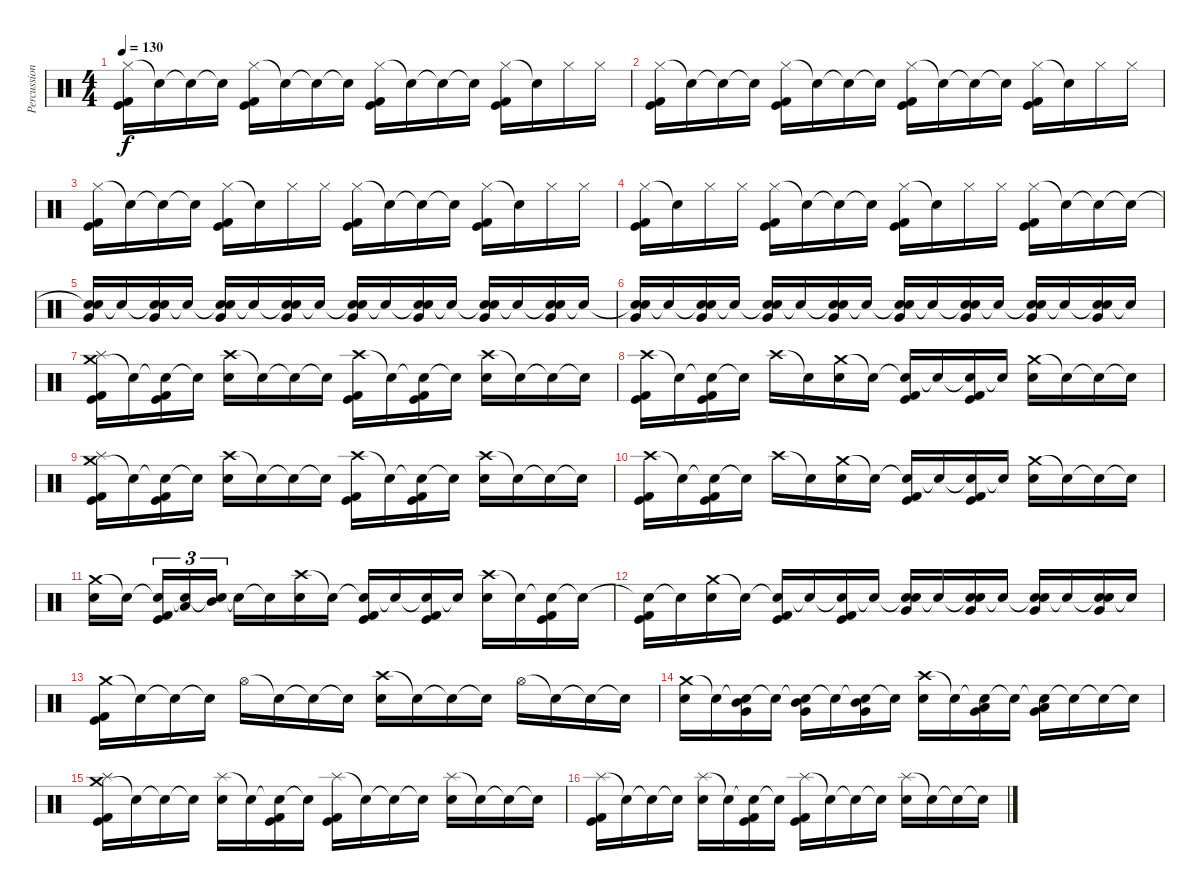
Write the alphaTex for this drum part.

\track ("Percussion" "Percussion") {instrument percussion}
\staff {score}
\articulation defaults
\ts (4 4)
\tempo 130
\clef neutral
\ks c
("Hi-Hat (closed)" "Kick (hit)" "Kick (hit) 2").16{dy f} "Snare (hit)"{t}.16 "Snare (hit)"{t}.16 "Snare (hit)"{t}.16 ("Hi-Hat (closed)" "Kick (hit)" "Kick (hit) 2").16 "Snare (hit)"{t}.16 "Snare (hit)"{t}.16 "Snare (hit)"{t}.16 ("Hi-Hat (closed)" "Kick (hit)" "Kick (hit) 2").16 "Snare (hit)"{t}.16 "Snare (hit)"{t}.16 "Snare (hit)"{t}.16 ("Hi-Hat (closed)" "Kick (hit)" "Kick (hit) 2").16 "Snare (hit)"{t}.16 "Hi-Hat (closed)".16 "Hi-Hat (closed)".16 |
("Hi-Hat (closed)" "Kick (hit)" "Kick (hit) 2").16 "Snare (hit)"{t}.16 "Snare (hit)"{t}.16 "Snare (hit)"{t}.16 ("Hi-Hat (closed)" "Kick (hit)" "Kick (hit) 2").16 "Snare (hit)"{t}.16 "Snare (hit)"{t}.16 "Snare (hit)"{t}.16 ("Hi-Hat (closed)" "Kick (hit)" "Kick (hit) 2").16 "Snare (hit)"{t}.16 "Snare (hit)"{t}.16 "Snare (hit)"{t}.16 ("Hi-Hat (closed)" "Kick (hit)" "Kick (hit) 2").16 "Snare (hit)"{t}.16 "Hi-Hat (closed)".16 "Hi-Hat (closed)".16 |
("Hi-Hat (closed)" "Kick (hit)" "Kick (hit) 2").16 "Snare (hit)"{t}.16 "Snare (hit)"{t}.16 "Snare (hit)"{t}.16 ("Hi-Hat (closed)" "Kick (hit)" "Kick (hit) 2").16 "Snare (hit)"{t}.16 "Hi-Hat (closed)".16 "Hi-Hat (closed)".16 ("Hi-Hat (closed)" "Kick (hit)" "Kick (hit) 2").16 "Snare (hit)"{t}.16 "Snare (hit)"{t}.16 "Snare (hit)"{t}.16 ("Hi-Hat (closed)" "Kick (hit)" "Kick (hit) 2").16 "Snare (hit)"{t}.16 "Hi-Hat (closed)".16 "Hi-Hat (closed)".16 |
("Hi-Hat (closed)" "Kick (hit)" "Kick (hit) 2").16 "Snare (hit)"{t}.16 "Hi-Hat (closed)".16 "Hi-Hat (closed)".16 ("Hi-Hat (closed)" "Kick (hit)" "Kick (hit) 2").16 "Snare (hit)"{t}.16 "Snare (hit)"{t}.16 "Snare (hit)"{t}.16 ("Hi-Hat (closed)" "Kick (hit)" "Kick (hit) 2").16 "Snare (hit)"{t}.16 "Hi-Hat (closed)".16 "Hi-Hat (closed)".16 ("Hi-Hat (closed)" "Kick (hit)" "Kick (hit) 2").16 "Snare (hit)"{t}.16 "Snare (hit)"{t}.16 "Snare (hit)"{t}.16 |
("Snare (hit)"{t} "Electric Snare (hit)" "Very Low Tom (hit)").16 "Snare (hit)"{t}.16 ("Snare (hit)"{t} "Electric Snare (hit)" "Very Low Tom (hit)").16{volume 8} "Snare (hit)"{t}.16 ("Snare (hit)"{t} "Electric Snare (hit)" "Very Low Tom (hit)").16{volume 16} "Snare (hit)"{t}.16 ("Snare (hit)"{t} "Electric Snare (hit)" "Very Low Tom (hit)").16 "Snare (hit)"{t}.16 ("Snare (hit)"{t} "Electric Snare (hit)" "Very Low Tom (hit)").16 "Snare (hit)"{t}.16 ("Snare (hit)"{t} "Electric Snare (hit)" "Very Low Tom (hit)").16 "Snare (hit)"{t}.16 ("Snare (hit)"{t} "Electric Snare (hit)" "Very Low Tom (hit)").16 "Snare (hit)"{t}.16 ("Snare (hit)"{t} "Electric Snare (hit)" "Very Low Tom (hit)").16 "Snare (hit)"{t}.16 |
("Snare (hit)"{t} "Electric Snare (hit)" "Very Low Tom (hit)").16 "Snare (hit)"{t}.16 ("Snare (hit)"{t} "Electric Snare (hit)" "Very Low Tom (hit)").16 "Snare (hit)"{t}.16 ("Snare (hit)"{t} "Electric Snare (hit)" "Very Low Tom (hit)").16 "Snare (hit)"{t}.16 ("Snare (hit)"{t} "Electric Snare (hit)" "Very Low Tom (hit)").16 "Snare (hit)"{t}.16 ("Snare (hit)"{t} "Electric Snare (hit)" "Very Low Tom (hit)").16 "Snare (hit)"{t}.16 ("Snare (hit)"{t} "Electric Snare (hit)" "Very Low Tom (hit)").16 "Snare (hit)"{t}.16 ("Snare (hit)"{t} "Electric Snare (hit)" "Very Low Tom (hit)").16 "Snare (hit)"{t}.16 ("Snare (hit)"{t} "Electric Snare (hit)" "Very Low Tom (hit)").16 "Snare (hit)"{t}.16 |
("Crash medium (hit)" "Splash (hit)" "Kick (hit)" "Kick (hit) 2").16 "Snare (hit)"{t}.16 ("Snare (hit)"{t} "Kick (hit)" "Kick (hit) 2").16 "Snare (hit)"{t}.16 ("Crash high (hit)" "Electric Snare (hit)").16 "Snare (hit)"{t}.16 "Snare (hit)"{t}.16 "Snare (hit)"{t}.16 ("Crash high (hit)" "Kick (hit)" "Kick (hit) 2").16 "Snare (hit)"{t}.16 ("Snare (hit)"{t} "Kick (hit)" "Kick (hit) 2").16 "Snare (hit)"{t}.16 ("Crash high (hit)" "Electric Snare (hit)").16 "Snare (hit)"{t}.16 "Snare (hit)"{t}.16 "Snare (hit)"{t}.16 |
("Crash high (hit)" "Kick (hit)" "Kick (hit) 2").16 "Snare (hit)"{t}.16 ("Snare (hit)"{t} "Kick (hit)" "Kick (hit) 2").16 "Snare (hit)"{t}.16 "Crash high (hit)".16 "Snare (hit)"{t}.16 ("Crash medium (hit)" "Electric Snare (hit)").16 "Snare (hit)"{t}.16 ("Snare (hit)"{t} "Kick (hit)" "Kick (hit) 2").16 "Snare (hit)"{t}.16 ("Snare (hit)"{t} "Kick (hit)" "Kick (hit) 2").16 "Snare (hit)"{t}.16 ("Crash medium (hit)" "Electric Snare (hit)").16 "Snare (hit)"{t}.16 "Snare (hit)"{t}.16 "Snare (hit)"{t}.16 |
("Crash medium (hit)" "Splash (hit)" "Kick (hit)" "Kick (hit) 2").16 "Snare (hit)"{t}.16 ("Snare (hit)"{t} "Kick (hit)" "Kick (hit) 2").16 "Snare (hit)"{t}.16 ("Crash high (hit)" "Electric Snare (hit)").16 "Snare (hit)"{t}.16 "Snare (hit)"{t}.16 "Snare (hit)"{t}.16 ("Crash high (hit)" "Kick (hit)" "Kick (hit) 2").16 "Snare (hit)"{t}.16 ("Snare (hit)"{t} "Kick (hit)" "Kick (hit) 2").16 "Snare (hit)"{t}.16 ("Crash high (hit)" "Electric Snare (hit)").16 "Snare (hit)"{t}.16 "Snare (hit)"{t}.16 "Snare (hit)"{t}.16 |
("Crash high (hit)" "Kick (hit)" "Kick (hit) 2").16 "Snare (hit)"{t}.16 ("Snare (hit)"{t} "Kick (hit)" "Kick (hit) 2").16 "Snare (hit)"{t}.16 "Crash high (hit)".16 "Snare (hit)"{t}.16 ("Crash medium (hit)" "Electric Snare (hit)").16 "Snare (hit)"{t}.16 ("Snare (hit)"{t} "Kick (hit)" "Kick (hit) 2").16 "Snare (hit)"{t}.16 ("Snare (hit)"{t} "Kick (hit)" "Kick (hit) 2").16 "Snare (hit)"{t}.16 ("Crash medium (hit)" "Electric Snare (hit)").16 "Snare (hit)"{t}.16 "Snare (hit)"{t}.16 "Snare (hit)"{t}.16 |
("Crash medium (hit)" "Electric Snare (hit)").16 "Snare (hit)"{t}.16{beam splitsecondary} ("Snare (hit)"{t} "Kick (hit)" "Kick (hit) 2").16{tu (3 2)} ("Snare (hit)"{t} "Low Tom (hit)").16{tu (3 2)} ("Snare (hit)"{t} "Mid Tom (hit)").16{tu (3 2)} "Snare (hit)"{t}.16 "Snare (hit)"{t}.16 ("Crash high (hit)" "Electric Snare (hit)").16 "Snare (hit)"{t}.16 ("Snare (hit)"{t} "Kick (hit)" "Kick (hit) 2").16 "Snare (hit)"{t}.16 ("Snare (hit)"{t} "Kick (hit)" "Kick (hit) 2").16 "Snare (hit)"{t}.16 ("Crash high (hit)" "Electric Snare (hit)").16 "Snare (hit)"{t}.16 ("Snare (hit)"{t} "Kick (hit)" "Kick (hit) 2").16 "Snare (hit)"{t}.16 |
("Snare (hit)"{t} "Kick (hit)" "Kick (hit) 2").16 "Snare (hit)"{t}.16 ("Crash medium (hit)" "Electric Snare (hit)").16 "Snare (hit)"{t}.16 ("Snare (hit)"{t} "Kick (hit)" "Kick (hit) 2").16 "Snare (hit)"{t}.16 ("Snare (hit)"{t} "Kick (hit)" "Kick (hit) 2").16 "Snare (hit)"{t}.16 ("Snare (hit)"{t} "Electric Snare (hit)" "Very Low Tom (hit)").16 "Snare (hit)"{t}.16 ("Snare (hit)"{t} "Electric Snare (hit)" "Very Low Tom (hit)").16 "Snare (hit)"{t}.16 ("Snare (hit)"{t} "Electric Snare (hit)" "Very Low Tom (hit)").16 "Snare (hit)"{t}.16 ("Snare (hit)"{t} "Electric Snare (hit)" "Very Low Tom (hit)").16 "Snare (hit)"{t}.16 |
("Crash medium (hit)" "Kick (hit)" "Kick (hit) 2").16 "Snare (hit)"{t}.16 "Snare (hit)"{t}.16 "Snare (hit)"{t}.16 "Hi-Hat (open)".16 "Snare (hit)"{t}.16 "Snare (hit)"{t}.16 "Snare (hit)"{t}.16 ("Crash high (hit)" "Electric Snare (hit)").16 "Snare (hit)"{t}.16 "Snare (hit)"{t}.16 "Snare (hit)"{t}.16 "Hi-Hat (open)".16 "Snare (hit)"{t}.16 "Snare (hit)"{t}.16 "Snare (hit)"{t}.16 |
("Crash medium (hit)" "Electric Snare (hit)").16 "Snare (hit)"{t}.16 ("Snare (hit)"{t} "Mid Tom (hit)" "Very Low Tom (hit)").16 "Snare (hit)"{t}.16 ("Snare (hit)"{t} "Mid Tom (hit)" "Very Low Tom (hit)").16 "Snare (hit)"{t}.16 ("Snare (hit)"{t} "Mid Tom (hit)" "Very Low Tom (hit)").16 "Snare (hit)"{t}.16 ("Crash high (hit)" "Electric Snare (hit)").16 "Snare (hit)"{t}.16 ("Snare (hit)"{t} "Low Tom (hit)" "Very Low Tom (hit)").16 "Snare (hit)"{t}.16 ("Snare (hit)"{t} "Low Tom (hit)" "Very Low Tom (hit)").16 "Snare (hit)"{t}.16 "Snare (hit)"{t}.16 "Snare (hit)"{t}.16 |
("Crash medium (hit)" "Splash (hit)" "Kick (hit)" "Kick (hit) 2").16 "Snare (hit)"{t}.16 "Snare (hit)"{t}.16 "Snare (hit)"{t}.16 ("Splash (hit)" "Electric Snare (hit)").16 "Snare (hit)"{t}.16 ("Snare (hit)"{t} "Kick (hit)" "Kick (hit) 2").16 "Snare (hit)"{t}.16 ("Splash (hit)" "Kick (hit)" "Kick (hit) 2").16 "Snare (hit)"{t}.16 "Snare (hit)"{t}.16 "Snare (hit)"{t}.16 ("Splash (hit)" "Electric Snare (hit)").16 "Snare (hit)"{t}.16 "Snare (hit)"{t}.16 "Snare (hit)"{t}.16 |
("Splash (hit)" "Kick (hit)" "Kick (hit) 2").16 "Snare (hit)"{t}.16 "Snare (hit)"{t}.16 "Snare (hit)"{t}.16 ("Splash (hit)" "Electric Snare (hit)").16 "Snare (hit)"{t}.16 ("Snare (hit)"{t} "Kick (hit)" "Kick (hit) 2").16 "Snare (hit)"{t}.16 ("Splash (hit)" "Kick (hit)" "Kick (hit) 2").16 "Snare (hit)"{t}.16 "Snare (hit)"{t}.16 "Snare (hit)"{t}.16 ("Splash (hit)" "Electric Snare (hit)").16 "Snare (hit)"{t}.16 "Snare (hit)"{t}.16 "Snare (hit)"{t}.16
